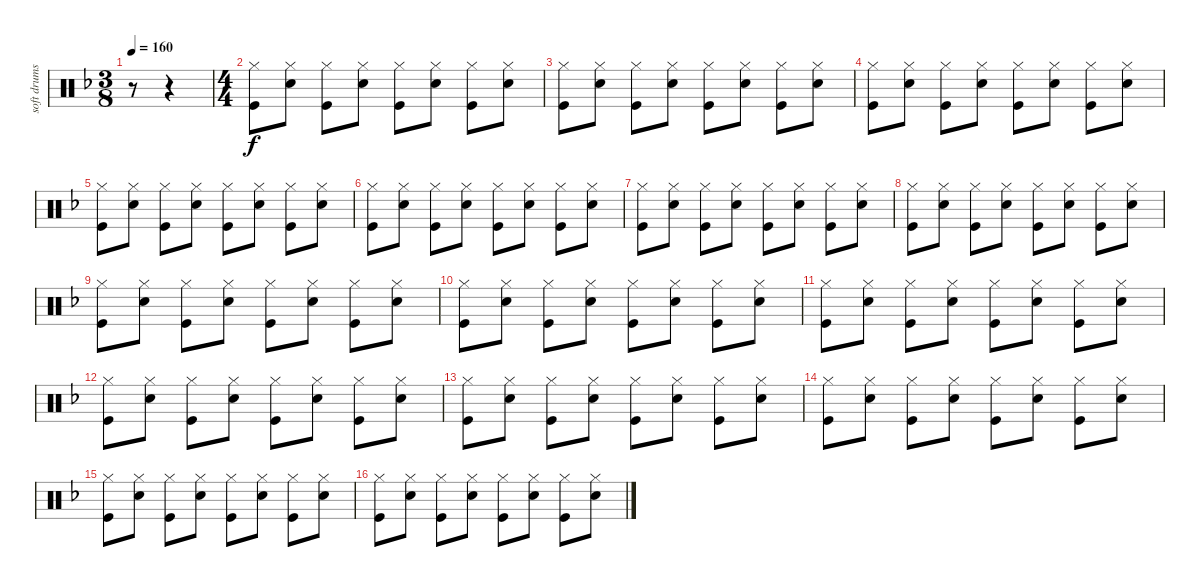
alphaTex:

\track ("soft drums" "soft drums") {instrument percussion}
\staff {score}
\articulation defaults
\ts (3 8)
\tempo 160
\clef neutral
\ks f
r.8{dy f} r.4 |
\ts (4 4)
("Hi-Hat (closed)" "Kick (hit)").8 ("Hi-Hat (closed)" "Snare (hit) 2").8 ("Hi-Hat (closed)" "Kick (hit)").8 ("Hi-Hat (closed)" "Snare (hit) 2").8 ("Hi-Hat (closed)" "Kick (hit)").8 ("Hi-Hat (closed)" "Snare (hit) 2").8 ("Hi-Hat (closed)" "Kick (hit)").8 ("Hi-Hat (closed)" "Snare (hit) 2").8 |
("Hi-Hat (closed)" "Kick (hit)").8 ("Hi-Hat (closed)" "Snare (hit) 2").8 ("Hi-Hat (closed)" "Kick (hit)").8 ("Hi-Hat (closed)" "Snare (hit) 2").8 ("Hi-Hat (closed)" "Kick (hit)").8 ("Hi-Hat (closed)" "Snare (hit) 2").8 ("Hi-Hat (closed)" "Kick (hit)").8 ("Hi-Hat (closed)" "Snare (hit) 2").8 |
("Hi-Hat (closed)" "Kick (hit)").8 ("Hi-Hat (closed)" "Snare (hit) 2").8 ("Hi-Hat (closed)" "Kick (hit)").8 ("Hi-Hat (closed)" "Snare (hit) 2").8 ("Hi-Hat (closed)" "Kick (hit)").8 ("Hi-Hat (closed)" "Snare (hit) 2").8 ("Hi-Hat (closed)" "Kick (hit)").8 ("Hi-Hat (closed)" "Snare (hit) 2").8 |
("Hi-Hat (closed)" "Kick (hit)").8 ("Hi-Hat (closed)" "Snare (hit) 2").8 ("Hi-Hat (closed)" "Kick (hit)").8 ("Hi-Hat (closed)" "Snare (hit) 2").8 ("Hi-Hat (closed)" "Kick (hit)").8 ("Hi-Hat (closed)" "Snare (hit) 2").8 ("Hi-Hat (closed)" "Kick (hit)").8 ("Hi-Hat (closed)" "Snare (hit) 2").8 |
("Hi-Hat (closed)" "Kick (hit)").8 ("Hi-Hat (closed)" "Snare (hit) 2").8 ("Hi-Hat (closed)" "Kick (hit)").8 ("Hi-Hat (closed)" "Snare (hit) 2").8 ("Hi-Hat (closed)" "Kick (hit)").8 ("Hi-Hat (closed)" "Snare (hit) 2").8 ("Hi-Hat (closed)" "Kick (hit)").8 ("Hi-Hat (closed)" "Snare (hit) 2").8 |
("Hi-Hat (closed)" "Kick (hit)").8 ("Hi-Hat (closed)" "Snare (hit) 2").8 ("Hi-Hat (closed)" "Kick (hit)").8 ("Hi-Hat (closed)" "Snare (hit) 2").8 ("Hi-Hat (closed)" "Kick (hit)").8 ("Hi-Hat (closed)" "Snare (hit) 2").8 ("Hi-Hat (closed)" "Kick (hit)").8 ("Hi-Hat (closed)" "Snare (hit) 2").8 |
("Hi-Hat (closed)" "Kick (hit)").8 ("Hi-Hat (closed)" "Snare (hit) 2").8 ("Hi-Hat (closed)" "Kick (hit)").8 ("Hi-Hat (closed)" "Snare (hit) 2").8 ("Hi-Hat (closed)" "Kick (hit)").8 ("Hi-Hat (closed)" "Snare (hit) 2").8 ("Hi-Hat (closed)" "Kick (hit)").8 ("Hi-Hat (closed)" "Snare (hit) 2").8 |
("Hi-Hat (closed)" "Kick (hit)").8 ("Hi-Hat (closed)" "Snare (hit) 2").8 ("Hi-Hat (closed)" "Kick (hit)").8 ("Hi-Hat (closed)" "Snare (hit) 2").8 ("Hi-Hat (closed)" "Kick (hit)").8 ("Hi-Hat (closed)" "Snare (hit) 2").8 ("Hi-Hat (closed)" "Kick (hit)").8 ("Hi-Hat (closed)" "Snare (hit) 2").8 |
("Hi-Hat (closed)" "Kick (hit)").8 ("Hi-Hat (closed)" "Snare (hit) 2").8 ("Hi-Hat (closed)" "Kick (hit)").8 ("Hi-Hat (closed)" "Snare (hit) 2").8 ("Hi-Hat (closed)" "Kick (hit)").8 ("Hi-Hat (closed)" "Snare (hit) 2").8 ("Hi-Hat (closed)" "Kick (hit)").8 ("Hi-Hat (closed)" "Snare (hit) 2").8 |
("Hi-Hat (closed)" "Kick (hit)").8 ("Hi-Hat (closed)" "Snare (hit) 2").8 ("Hi-Hat (closed)" "Kick (hit)").8 ("Hi-Hat (closed)" "Snare (hit) 2").8 ("Hi-Hat (closed)" "Kick (hit)").8 ("Hi-Hat (closed)" "Snare (hit) 2").8 ("Hi-Hat (closed)" "Kick (hit)").8 ("Hi-Hat (closed)" "Snare (hit) 2").8 |
("Hi-Hat (closed)" "Kick (hit)").8 ("Hi-Hat (closed)" "Snare (hit) 2").8 ("Hi-Hat (closed)" "Kick (hit)").8 ("Hi-Hat (closed)" "Snare (hit) 2").8 ("Hi-Hat (closed)" "Kick (hit)").8 ("Hi-Hat (closed)" "Snare (hit) 2").8 ("Hi-Hat (closed)" "Kick (hit)").8 ("Hi-Hat (closed)" "Snare (hit) 2").8 |
("Hi-Hat (closed)" "Kick (hit)").8 ("Hi-Hat (closed)" "Snare (hit) 2").8 ("Hi-Hat (closed)" "Kick (hit)").8 ("Hi-Hat (closed)" "Snare (hit) 2").8 ("Hi-Hat (closed)" "Kick (hit)").8 ("Hi-Hat (closed)" "Snare (hit) 2").8 ("Hi-Hat (closed)" "Kick (hit)").8 ("Hi-Hat (closed)" "Snare (hit) 2").8 |
("Hi-Hat (closed)" "Kick (hit)").8 ("Hi-Hat (closed)" "Snare (hit) 2").8 ("Hi-Hat (closed)" "Kick (hit)").8 ("Hi-Hat (closed)" "Snare (hit) 2").8 ("Hi-Hat (closed)" "Kick (hit)").8 ("Hi-Hat (closed)" "Snare (hit) 2").8 ("Hi-Hat (closed)" "Kick (hit)").8 ("Hi-Hat (closed)" "Snare (hit) 2").8 |
("Hi-Hat (closed)" "Kick (hit)").8 ("Hi-Hat (closed)" "Snare (hit) 2").8 ("Hi-Hat (closed)" "Kick (hit)").8 ("Hi-Hat (closed)" "Snare (hit) 2").8 ("Hi-Hat (closed)" "Kick (hit)").8 ("Hi-Hat (closed)" "Snare (hit) 2").8 ("Hi-Hat (closed)" "Kick (hit)").8 ("Hi-Hat (closed)" "Snare (hit) 2").8 |
("Hi-Hat (closed)" "Kick (hit)").8 ("Hi-Hat (closed)" "Snare (hit) 2").8 ("Hi-Hat (closed)" "Kick (hit)").8 ("Hi-Hat (closed)" "Snare (hit) 2").8 ("Hi-Hat (closed)" "Kick (hit)").8 ("Hi-Hat (closed)" "Snare (hit) 2").8 ("Hi-Hat (closed)" "Kick (hit)").8 ("Hi-Hat (closed)" "Snare (hit) 2").8
